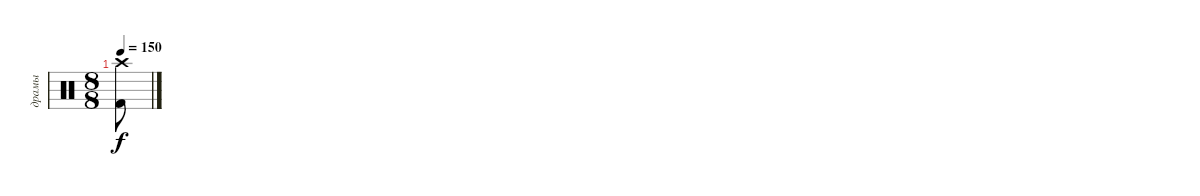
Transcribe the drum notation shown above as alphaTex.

\track ("драмы" "драмы") {instrument percussion}
\staff {score}
\articulation defaults
\ts (8 8)
\tempo 150
\clef neutral
\ks c
("Kick (hit) 2" "Crash high (hit)").8{dy f}
